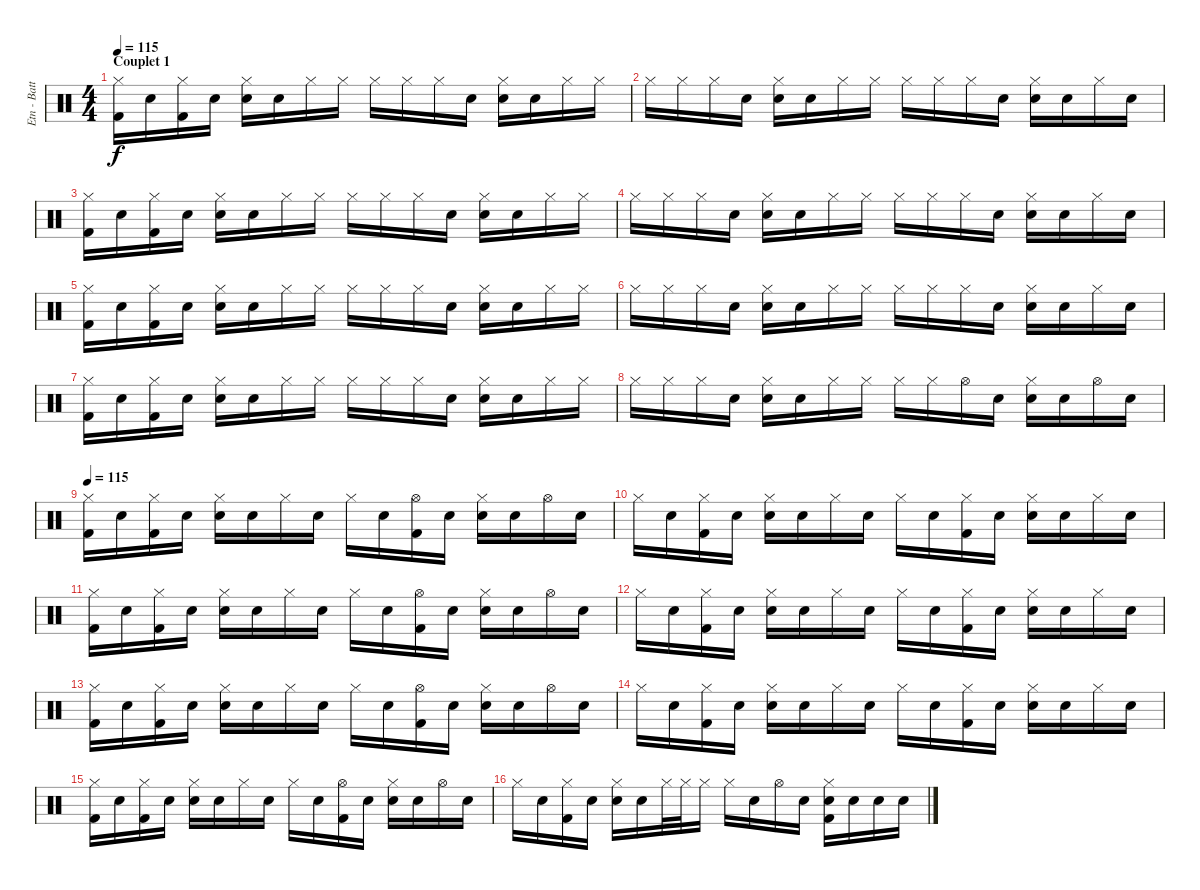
\track ("Etn - Batterie" "Etn - Batt") {instrument percussion}
\staff {score}
\articulation defaults
\ts (4 4)
\section ("" "Couplet 1")
\tempo 115
\clef neutral
\ks c
("Hi-Hat (closed)" "Kick (hit) 2").16{dy f volume 16 balance 8} "Snare (hit)".16 ("Hi-Hat (closed)" "Kick (hit) 2").16 "Snare (hit)".16 ("Hi-Hat (closed)" "Electric Snare (hit)").16 "Snare (hit)".16 "Hi-Hat (closed)".16 "Hi-Hat (closed)".16 "Hi-Hat (closed)".16 "Hi-Hat (closed)".16 "Hi-Hat (closed)".16 "Snare (hit)".16 ("Hi-Hat (closed)" "Electric Snare (hit)").16 "Snare (hit)".16 "Hi-Hat (closed)".16 "Hi-Hat (closed)".16 |
"Hi-Hat (closed)".16 "Hi-Hat (closed)".16 "Hi-Hat (closed)".16 "Snare (hit)".16 ("Hi-Hat (closed)" "Electric Snare (hit)").16 "Snare (hit)".16 "Hi-Hat (closed)".16 "Hi-Hat (closed)".16 "Hi-Hat (closed)".16 "Hi-Hat (closed)".16 "Hi-Hat (closed)".16 "Snare (hit)".16 ("Hi-Hat (closed)" "Electric Snare (hit)").16 "Snare (hit)".16 "Hi-Hat (closed)".16 "Snare (hit)".16 |
("Hi-Hat (closed)" "Kick (hit) 2").16 "Snare (hit)".16 ("Hi-Hat (closed)" "Kick (hit) 2").16 "Snare (hit)".16 ("Hi-Hat (closed)" "Electric Snare (hit)").16 "Snare (hit)".16 "Hi-Hat (closed)".16 "Hi-Hat (closed)".16 "Hi-Hat (closed)".16 "Hi-Hat (closed)".16 "Hi-Hat (closed)".16 "Snare (hit)".16 ("Hi-Hat (closed)" "Electric Snare (hit)").16 "Snare (hit)".16 "Hi-Hat (closed)".16 "Hi-Hat (closed)".16 |
"Hi-Hat (closed)".16 "Hi-Hat (closed)".16 "Hi-Hat (closed)".16 "Snare (hit)".16 ("Hi-Hat (closed)" "Electric Snare (hit)").16 "Snare (hit)".16 "Hi-Hat (closed)".16 "Hi-Hat (closed)".16 "Hi-Hat (closed)".16 "Hi-Hat (closed)".16 "Hi-Hat (closed)".16 "Snare (hit)".16 ("Hi-Hat (closed)" "Electric Snare (hit)").16 "Snare (hit)".16 "Hi-Hat (closed)".16 "Snare (hit)".16 |
("Hi-Hat (closed)" "Kick (hit) 2").16 "Snare (hit)".16 ("Hi-Hat (closed)" "Kick (hit) 2").16 "Snare (hit)".16 ("Hi-Hat (closed)" "Electric Snare (hit)").16 "Snare (hit)".16 "Hi-Hat (closed)".16 "Hi-Hat (closed)".16 "Hi-Hat (closed)".16 "Hi-Hat (closed)".16 "Hi-Hat (closed)".16 "Snare (hit)".16 ("Hi-Hat (closed)" "Electric Snare (hit)").16 "Snare (hit)".16 "Hi-Hat (closed)".16 "Hi-Hat (closed)".16 |
"Hi-Hat (closed)".16 "Hi-Hat (closed)".16 "Hi-Hat (closed)".16 "Snare (hit)".16 ("Hi-Hat (closed)" "Electric Snare (hit)").16 "Snare (hit)".16 "Hi-Hat (closed)".16 "Hi-Hat (closed)".16 "Hi-Hat (closed)".16 "Hi-Hat (closed)".16 "Hi-Hat (closed)".16 "Snare (hit)".16 ("Hi-Hat (closed)" "Electric Snare (hit)").16 "Snare (hit)".16 "Hi-Hat (closed)".16 "Snare (hit)".16 |
("Hi-Hat (closed)" "Kick (hit) 2").16 "Snare (hit)".16 ("Hi-Hat (closed)" "Kick (hit) 2").16 "Snare (hit)".16 ("Hi-Hat (closed)" "Electric Snare (hit)").16 "Snare (hit)".16 "Hi-Hat (closed)".16 "Hi-Hat (closed)".16 "Hi-Hat (closed)".16 "Hi-Hat (closed)".16 "Hi-Hat (closed)".16 "Snare (hit)".16 ("Hi-Hat (closed)" "Electric Snare (hit)").16 "Snare (hit)".16 "Hi-Hat (closed)".16 "Hi-Hat (closed)".16 |
"Hi-Hat (closed)".16 "Hi-Hat (closed)".16 "Hi-Hat (closed)".16 "Snare (hit)".16 ("Hi-Hat (closed)" "Electric Snare (hit)").16 "Snare (hit)".16 "Hi-Hat (closed)".16 "Hi-Hat (closed)".16 "Hi-Hat (closed)".16 "Hi-Hat (closed)".16 "Hi-Hat (open)".16 "Snare (hit)".16 ("Hi-Hat (closed)" "Electric Snare (hit)").16 "Snare (hit)".16 "Hi-Hat (open)".16 "Snare (hit)".16 |
\section ("" "")
\tempo 115
("Hi-Hat (closed)" "Kick (hit) 2").16{volume 16 balance 8} "Snare (hit)".16 ("Hi-Hat (closed)" "Kick (hit) 2").16 "Snare (hit)".16 ("Hi-Hat (closed)" "Electric Snare (hit)").16 "Snare (hit)".16 "Hi-Hat (closed)".16 "Snare (hit)".16 "Hi-Hat (closed)".16 "Snare (hit)".16 ("Hi-Hat (open)" "Kick (hit) 2").16 "Snare (hit)".16 ("Hi-Hat (closed)" "Electric Snare (hit)").16 "Snare (hit)".16 "Hi-Hat (open)".16 "Snare (hit)".16 |
"Hi-Hat (closed)".16 "Snare (hit)".16 ("Hi-Hat (closed)" "Kick (hit) 2").16 "Snare (hit)".16 ("Hi-Hat (closed)" "Electric Snare (hit)").16 "Snare (hit)".16 "Hi-Hat (closed)".16 "Snare (hit)".16 "Hi-Hat (closed)".16 "Snare (hit)".16 ("Hi-Hat (closed)" "Kick (hit) 2").16 "Snare (hit)".16 ("Hi-Hat (closed)" "Electric Snare (hit)").16 "Snare (hit)".16 "Hi-Hat (closed)".16 "Snare (hit)".16 |
("Hi-Hat (closed)" "Kick (hit) 2").16 "Snare (hit)".16 ("Hi-Hat (closed)" "Kick (hit) 2").16 "Snare (hit)".16 ("Hi-Hat (closed)" "Electric Snare (hit)").16 "Snare (hit)".16 "Hi-Hat (closed)".16 "Snare (hit)".16 "Hi-Hat (closed)".16 "Snare (hit)".16 ("Hi-Hat (open)" "Kick (hit) 2").16 "Snare (hit)".16 ("Hi-Hat (closed)" "Electric Snare (hit)").16 "Snare (hit)".16 "Hi-Hat (open)".16 "Snare (hit)".16 |
"Hi-Hat (closed)".16 "Snare (hit)".16 ("Hi-Hat (closed)" "Kick (hit) 2").16 "Snare (hit)".16 ("Hi-Hat (closed)" "Electric Snare (hit)").16 "Snare (hit)".16 "Hi-Hat (closed)".16 "Snare (hit)".16 "Hi-Hat (closed)".16 "Snare (hit)".16 ("Hi-Hat (closed)" "Kick (hit) 2").16 "Snare (hit)".16 ("Hi-Hat (closed)" "Electric Snare (hit)").16 "Snare (hit)".16 "Hi-Hat (closed)".16 "Snare (hit)".16 |
("Hi-Hat (closed)" "Kick (hit) 2").16 "Snare (hit)".16 ("Hi-Hat (closed)" "Kick (hit) 2").16 "Snare (hit)".16 ("Hi-Hat (closed)" "Electric Snare (hit)").16 "Snare (hit)".16 "Hi-Hat (closed)".16 "Snare (hit)".16 "Hi-Hat (closed)".16 "Snare (hit)".16 ("Hi-Hat (open)" "Kick (hit) 2").16 "Snare (hit)".16 ("Hi-Hat (closed)" "Electric Snare (hit)").16 "Snare (hit)".16 "Hi-Hat (open)".16 "Snare (hit)".16 |
"Hi-Hat (closed)".16 "Snare (hit)".16 ("Hi-Hat (closed)" "Kick (hit) 2").16 "Snare (hit)".16 ("Hi-Hat (closed)" "Electric Snare (hit)").16 "Snare (hit)".16 "Hi-Hat (closed)".16 "Snare (hit)".16 "Hi-Hat (closed)".16 "Snare (hit)".16 ("Hi-Hat (closed)" "Kick (hit) 2").16 "Snare (hit)".16 ("Hi-Hat (closed)" "Electric Snare (hit)").16 "Snare (hit)".16 "Hi-Hat (closed)".16 "Snare (hit)".16 |
("Hi-Hat (closed)" "Kick (hit) 2").16 "Snare (hit)".16 ("Hi-Hat (closed)" "Kick (hit) 2").16 "Snare (hit)".16 ("Hi-Hat (closed)" "Electric Snare (hit)").16 "Snare (hit)".16 "Hi-Hat (closed)".16 "Snare (hit)".16 "Hi-Hat (closed)".16 "Snare (hit)".16 ("Hi-Hat (open)" "Kick (hit) 2").16 "Snare (hit)".16 ("Hi-Hat (closed)" "Electric Snare (hit)").16 "Snare (hit)".16 "Hi-Hat (open)".16 "Snare (hit)".16 |
"Hi-Hat (closed)".16 "Snare (hit)".16 ("Hi-Hat (closed)" "Kick (hit) 2").16 "Snare (hit)".16 ("Hi-Hat (closed)" "Electric Snare (hit)").16 "Snare (hit)".16 "Hi-Hat (closed)".32 "Hi-Hat (closed)".32 "Hi-Hat (closed)".16 "Hi-Hat (closed)".16 "Snare (hit)".16 "Hi-Hat (open)".16 "Snare (hit)".16 ("Hi-Hat (closed)" "Electric Snare (hit)" "Kick (hit) 2").16 "Snare (hit)".16 "Snare (hit)".16 "Snare (hit)".16
